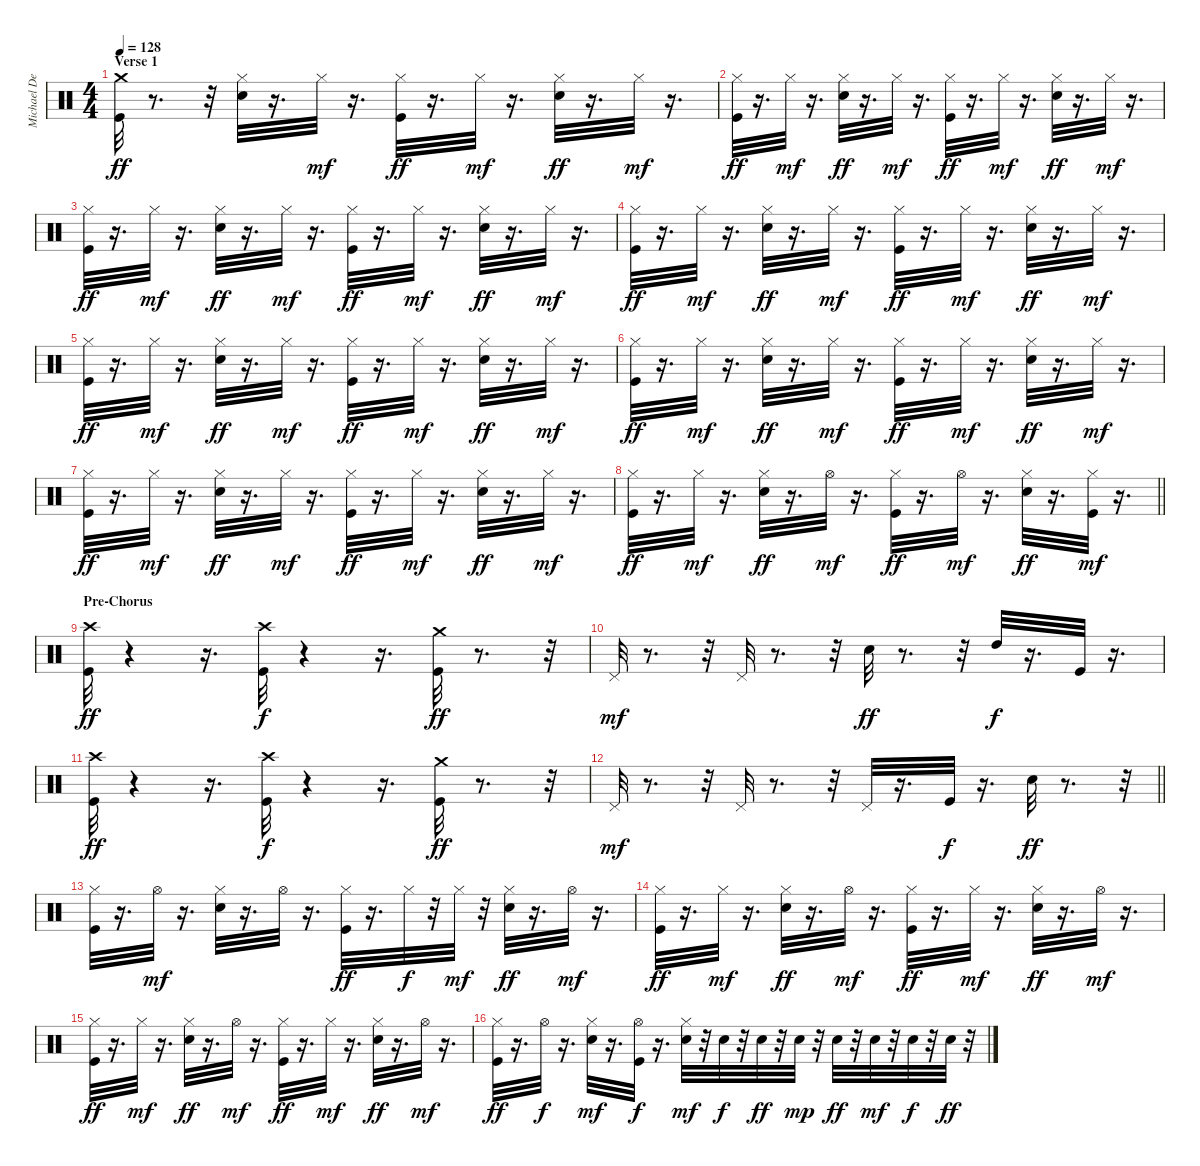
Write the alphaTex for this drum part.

\track ("Michael DeRosier" "Michael De") {instrument percussion}
\staff {score}
\articulation defaults
\ts (4 4)
\section ("" "Verse 1")
\tempo 128
\clef neutral
\ks c
("Kick (hit)" "Crash medium (hit)").32{dy ff} r.8{d} r.32 ("Snare (hit) 2" "Hi-Hat (closed)").32 r.16{d} "Hi-Hat (closed)".32{dy mf} r.16{d} ("Hi-Hat (closed)" "Kick (hit)").32{dy ff} r.16{d} "Hi-Hat (closed)".32{dy mf} r.16{d} ("Snare (hit) 2" "Hi-Hat (closed)").32{dy ff} r.16{d} "Hi-Hat (closed)".32{dy mf} r.16{d} |
("Hi-Hat (closed)" "Kick (hit)").32{dy ff} r.16{d} "Hi-Hat (closed)".32{dy mf} r.16{d} ("Snare (hit) 2" "Hi-Hat (closed)").32{dy ff} r.16{d} "Hi-Hat (closed)".32{dy mf} r.16{d} ("Hi-Hat (closed)" "Kick (hit)").32{dy ff} r.16{d} "Hi-Hat (closed)".32{dy mf} r.16{d} ("Snare (hit) 2" "Hi-Hat (closed)").32{dy ff} r.16{d} "Hi-Hat (closed)".32{dy mf} r.16{d} |
("Hi-Hat (closed)" "Kick (hit)").32{dy ff} r.16{d} "Hi-Hat (closed)".32{dy mf} r.16{d} ("Snare (hit) 2" "Hi-Hat (closed)").32{dy ff} r.16{d} "Hi-Hat (closed)".32{dy mf} r.16{d} ("Hi-Hat (closed)" "Kick (hit)").32{dy ff} r.16{d} "Hi-Hat (closed)".32{dy mf} r.16{d} ("Snare (hit) 2" "Hi-Hat (closed)").32{dy ff} r.16{d} "Hi-Hat (closed)".32{dy mf} r.16{d} |
("Hi-Hat (closed)" "Kick (hit)").32{dy ff} r.16{d} "Hi-Hat (closed)".32{dy mf} r.16{d} ("Snare (hit) 2" "Hi-Hat (closed)").32{dy ff} r.16{d} "Hi-Hat (closed)".32{dy mf} r.16{d} ("Hi-Hat (closed)" "Kick (hit)").32{dy ff} r.16{d} "Hi-Hat (closed)".32{dy mf} r.16{d} ("Snare (hit) 2" "Hi-Hat (closed)").32{dy ff} r.16{d} "Hi-Hat (closed)".32{dy mf} r.16{d} |
("Hi-Hat (closed)" "Kick (hit)").32{dy ff} r.16{d} "Hi-Hat (closed)".32{dy mf} r.16{d} ("Snare (hit) 2" "Hi-Hat (closed)").32{dy ff} r.16{d} "Hi-Hat (closed)".32{dy mf} r.16{d} ("Hi-Hat (closed)" "Kick (hit)").32{dy ff} r.16{d} "Hi-Hat (closed)".32{dy mf} r.16{d} ("Snare (hit) 2" "Hi-Hat (closed)").32{dy ff} r.16{d} "Hi-Hat (closed)".32{dy mf} r.16{d} |
("Hi-Hat (closed)" "Kick (hit)").32{dy ff} r.16{d} "Hi-Hat (closed)".32{dy mf} r.16{d} ("Snare (hit) 2" "Hi-Hat (closed)").32{dy ff} r.16{d} "Hi-Hat (closed)".32{dy mf} r.16{d} ("Hi-Hat (closed)" "Kick (hit)").32{dy ff} r.16{d} "Hi-Hat (closed)".32{dy mf} r.16{d} ("Snare (hit) 2" "Hi-Hat (closed)").32{dy ff} r.16{d} "Hi-Hat (closed)".32{dy mf} r.16{d} |
("Kick (hit)" "Hi-Hat (closed)").32{dy ff} r.16{d} "Hi-Hat (closed)".32{dy mf} r.16{d} ("Snare (hit) 2" "Hi-Hat (closed)").32{dy ff} r.16{d} "Hi-Hat (closed)".32{dy mf} r.16{d} ("Hi-Hat (closed)" "Kick (hit)").32{dy ff} r.16{d} "Hi-Hat (closed)".32{dy mf} r.16{d} ("Snare (hit) 2" "Hi-Hat (closed)").32{dy ff} r.16{d} "Hi-Hat (closed)".32{dy mf} r.16{d} |
\barLineRight lightlight
("Hi-Hat (closed)" "Kick (hit)").32{dy ff} r.16{d} "Hi-Hat (closed)".32{dy mf} r.16{d} ("Snare (hit) 2" "Hi-Hat (closed)").32{dy ff} r.16{d} "Hi-Hat (open)".32{dy mf} r.16{d} ("Hi-Hat (closed)" "Kick (hit)").32{dy ff} r.16{d} "Hi-Hat (open)".32{dy mf} r.16{d} ("Snare (hit) 2" "Hi-Hat (closed)").32{dy ff} r.16{d} ("Hi-Hat (closed)" "Kick (hit)").32{dy mf} r.16{d} |
\section ("" "Pre-Chorus")
("Kick (hit)" "Crash high (hit)").32{dy ff} r.4 r.16{d} ("Kick (hit)" "Crash high (hit)").32{dy f} r.4 r.16{d} ("Kick (hit)" "Crash medium (hit)").32{dy ff} r.8{d} r.32 |
"Pedal Hi-Hat (hit)".32{dy mf} r.8{d} r.32 "Pedal Hi-Hat (hit)".32 r.8{d} r.32 "Snare (hit) 2".32{dy ff} r.8{d} r.32 "High Tom (hit)".32{dy f} r.16{d} "Kick (hit)".32 r.16{d} |
("Kick (hit)" "Crash high (hit)").32{dy ff} r.4 r.16{d} ("Kick (hit)" "Crash high (hit)").32{dy f} r.4 r.16{d} ("Kick (hit)" "Crash medium (hit)").32{dy ff} r.8{d} r.32 |
\barLineRight lightlight "Pedal Hi-Hat (hit)".32{dy mf}
r.8{d} r.32 "Pedal Hi-Hat (hit)".32 r.8{d} r.32 "Pedal Hi-Hat (hit)".32 r.16{d} "Kick (hit)".32{dy f} r.16{d} "Snare (hit) 2".32{dy ff} r.8{d} r.32 |
("Hi-Hat (closed)" "Kick (hit)").32 r.16{d} "Hi-Hat (open)".32{dy mf} r.16{d} ("Snare (hit) 2" "Hi-Hat (closed)").32 r.16{d} "Hi-Hat (open)".32 r.16{d} ("Hi-Hat (closed)" "Kick (hit)").32{dy ff} r.16{d} "Hi-Hat (closed)".32{dy f} r.32 "Hi-Hat (closed)".32{dy mf} r.32 ("Snare (hit) 2" "Hi-Hat (closed)").32{dy ff} r.16{d} "Hi-Hat (open)".32{dy mf} r.16{d} |
("Hi-Hat (closed)" "Kick (hit)").32{dy ff} r.16{d} "Hi-Hat (closed)".32{dy mf} r.16{d} ("Snare (hit) 2" "Hi-Hat (closed)").32{dy ff} r.16{d} "Hi-Hat (open)".32{dy mf} r.16{d} ("Hi-Hat (closed)" "Kick (hit)").32{dy ff} r.16{d} "Hi-Hat (closed)".32{dy mf} r.16{d} ("Snare (hit) 2" "Hi-Hat (closed)").32{dy ff} r.16{d} "Hi-Hat (open)".32{dy mf} r.16{d} |
("Hi-Hat (closed)" "Kick (hit)").32{dy ff} r.16{d} "Hi-Hat (closed)".32{dy mf} r.16{d} ("Snare (hit) 2" "Hi-Hat (closed)").32{dy ff} r.16{d} "Hi-Hat (open)".32{dy mf} r.16{d} ("Hi-Hat (closed)" "Kick (hit)").32{dy ff} r.16{d} "Hi-Hat (closed)".32{dy mf} r.16{d} ("Snare (hit) 2" "Hi-Hat (closed)").32{dy ff} r.16{d} "Hi-Hat (open)".32{dy mf} r.16{d} |
("Hi-Hat (closed)" "Kick (hit)").32{dy ff} r.16{d} "Hi-Hat (open)".32{dy f} r.16{d} ("Snare (hit) 2" "Hi-Hat (closed)").32{dy mf} r.16{d} ("Hi-Hat (open)" "Kick (hit)").32{dy f} r.16{d} ("Snare (hit) 2" "Hi-Hat (closed)").32{dy mf} r.32 "Snare (hit) 2".32{dy f} r.32 "Snare (hit) 2".32{dy ff} r.32 "Snare (hit) 2".32{dy mp} r.32 "Snare (hit) 2".32{dy ff} r.32 "Snare (hit) 2".32{dy mf} r.32 "Snare (hit) 2".32{dy f} r.32 "Snare (hit) 2".32{dy ff} r.32
